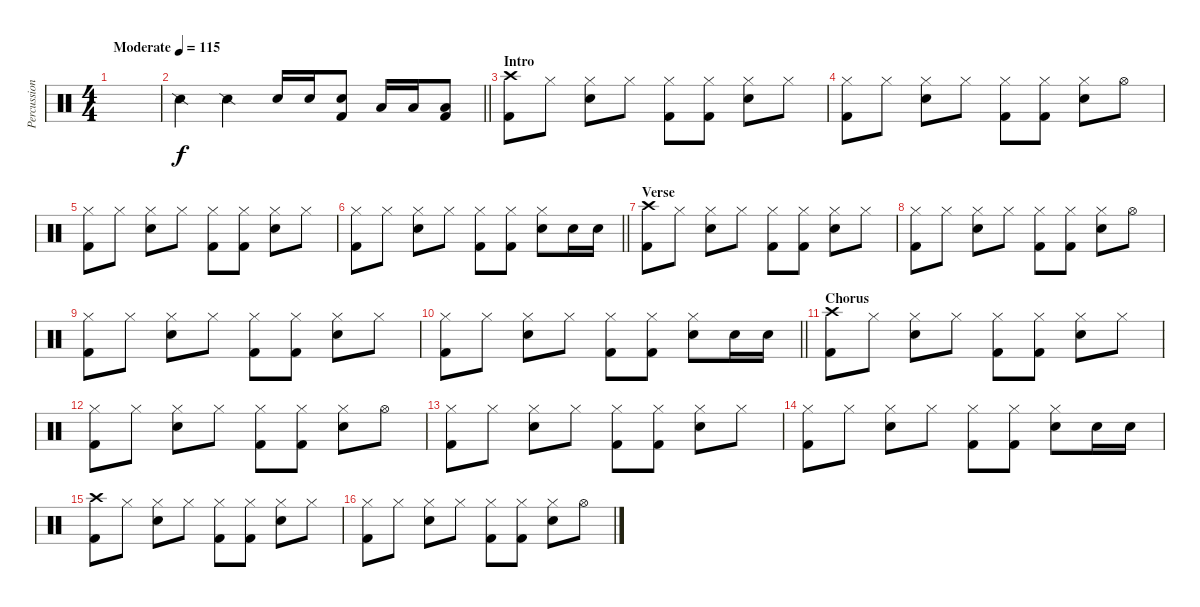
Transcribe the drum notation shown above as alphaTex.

\track ("Percussions" "Percussion") {instrument percussion}
\staff {score}
\articulation defaults
\ts (4 4)
\tempo (115 "Moderate")
\clef neutral
\ks c
|
\barLineRight lightlight "Snare (side stick) 2".4 "Snare (side stick) 2".4 "Electric Snare (hit)".16 "Electric Snare (hit)".16
("Kick (hit) 2" "Electric Snare (hit)").8 "Low Floor Tom (hit)".16 "Low Floor Tom (hit)".16 ("Kick (hit) 2" "Low Floor Tom (hit)").8 |
\section ("" "Intro")
("Crash high (hit)" "Kick (hit) 2").8 "Hi-Hat (closed)".8 ("Hi-Hat (closed)" "Electric Snare (hit)").8 "Hi-Hat (closed)".8 ("Hi-Hat (closed)" "Kick (hit) 2").8 ("Hi-Hat (closed)" "Kick (hit) 2").8 ("Hi-Hat (closed)" "Electric Snare (hit)").8 "Hi-Hat (closed)".8 |
("Hi-Hat (closed)" "Kick (hit) 2").8 "Hi-Hat (closed)".8 ("Hi-Hat (closed)" "Electric Snare (hit)").8 "Hi-Hat (closed)".8 ("Hi-Hat (closed)" "Kick (hit) 2").8 ("Hi-Hat (closed)" "Kick (hit) 2").8 ("Hi-Hat (closed)" "Electric Snare (hit)").8 "Hi-Hat (open)".8 |
("Hi-Hat (closed)" "Kick (hit) 2").8 "Hi-Hat (closed)".8 ("Hi-Hat (closed)" "Electric Snare (hit)").8 "Hi-Hat (closed)".8 ("Hi-Hat (closed)" "Kick (hit) 2").8 ("Hi-Hat (closed)" "Kick (hit) 2").8 ("Hi-Hat (closed)" "Electric Snare (hit)").8 "Hi-Hat (closed)".8 |
\barLineRight lightlight
("Hi-Hat (closed)" "Kick (hit) 2").8 "Hi-Hat (closed)".8 ("Hi-Hat (closed)" "Electric Snare (hit)").8 "Hi-Hat (closed)".8 ("Hi-Hat (closed)" "Kick (hit) 2").8 ("Hi-Hat (closed)" "Kick (hit) 2").8 ("Hi-Hat (closed)" "Electric Snare (hit)").8 "Electric Snare (hit)".16 "Electric Snare (hit)".16 |
\section ("" "Verse")
("Crash high (hit)" "Kick (hit) 2").8 "Hi-Hat (closed)".8 ("Hi-Hat (closed)" "Electric Snare (hit)").8 "Hi-Hat (closed)".8 ("Hi-Hat (closed)" "Kick (hit) 2").8 ("Hi-Hat (closed)" "Kick (hit) 2").8 ("Hi-Hat (closed)" "Electric Snare (hit)").8 "Hi-Hat (closed)".8 |
("Hi-Hat (closed)" "Kick (hit) 2").8 "Hi-Hat (closed)".8 ("Hi-Hat (closed)" "Electric Snare (hit)").8 "Hi-Hat (closed)".8 ("Hi-Hat (closed)" "Kick (hit) 2").8 ("Hi-Hat (closed)" "Kick (hit) 2").8 ("Hi-Hat (closed)" "Electric Snare (hit)").8 "Hi-Hat (open)".8 |
("Hi-Hat (closed)" "Kick (hit) 2").8 "Hi-Hat (closed)".8 ("Hi-Hat (closed)" "Electric Snare (hit)").8 "Hi-Hat (closed)".8 ("Hi-Hat (closed)" "Kick (hit) 2").8 ("Hi-Hat (closed)" "Kick (hit) 2").8 ("Hi-Hat (closed)" "Electric Snare (hit)").8 "Hi-Hat (closed)".8 |
\barLineRight lightlight
("Hi-Hat (closed)" "Kick (hit) 2").8 "Hi-Hat (closed)".8 ("Hi-Hat (closed)" "Electric Snare (hit)").8 "Hi-Hat (closed)".8 ("Hi-Hat (closed)" "Kick (hit) 2").8 ("Hi-Hat (closed)" "Kick (hit) 2").8 ("Hi-Hat (closed)" "Electric Snare (hit)").8 "Electric Snare (hit)".16 "Electric Snare (hit)".16 |
\section ("" "Chorus")
("Crash high (hit)" "Kick (hit) 2").8 "Hi-Hat (closed)".8 ("Hi-Hat (closed)" "Electric Snare (hit)").8 "Hi-Hat (closed)".8 ("Hi-Hat (closed)" "Kick (hit) 2").8 ("Hi-Hat (closed)" "Kick (hit) 2").8 ("Hi-Hat (closed)" "Electric Snare (hit)").8 "Hi-Hat (closed)".8 |
("Hi-Hat (closed)" "Kick (hit) 2").8 "Hi-Hat (closed)".8 ("Hi-Hat (closed)" "Electric Snare (hit)").8 "Hi-Hat (closed)".8 ("Hi-Hat (closed)" "Kick (hit) 2").8 ("Hi-Hat (closed)" "Kick (hit) 2").8 ("Hi-Hat (closed)" "Electric Snare (hit)").8 "Hi-Hat (open)".8 |
("Hi-Hat (closed)" "Kick (hit) 2").8 "Hi-Hat (closed)".8 ("Hi-Hat (closed)" "Electric Snare (hit)").8 "Hi-Hat (closed)".8 ("Hi-Hat (closed)" "Kick (hit) 2").8 ("Hi-Hat (closed)" "Kick (hit) 2").8 ("Hi-Hat (closed)" "Electric Snare (hit)").8 "Hi-Hat (closed)".8 |
("Hi-Hat (closed)" "Kick (hit) 2").8 "Hi-Hat (closed)".8 ("Hi-Hat (closed)" "Electric Snare (hit)").8 "Hi-Hat (closed)".8 ("Hi-Hat (closed)" "Kick (hit) 2").8 ("Hi-Hat (closed)" "Kick (hit) 2").8 ("Hi-Hat (closed)" "Electric Snare (hit)").8 "Electric Snare (hit)".16 "Electric Snare (hit)".16 |
("Crash high (hit)" "Kick (hit) 2").8 "Hi-Hat (closed)".8 ("Hi-Hat (closed)" "Electric Snare (hit)").8 "Hi-Hat (closed)".8 ("Hi-Hat (closed)" "Kick (hit) 2").8 ("Hi-Hat (closed)" "Kick (hit) 2").8 ("Hi-Hat (closed)" "Electric Snare (hit)").8 "Hi-Hat (closed)".8 |
("Hi-Hat (closed)" "Kick (hit) 2").8 "Hi-Hat (closed)".8 ("Hi-Hat (closed)" "Electric Snare (hit)").8 "Hi-Hat (closed)".8 ("Hi-Hat (closed)" "Kick (hit) 2").8 ("Hi-Hat (closed)" "Kick (hit) 2").8 ("Hi-Hat (closed)" "Electric Snare (hit)").8 "Hi-Hat (open)".8
